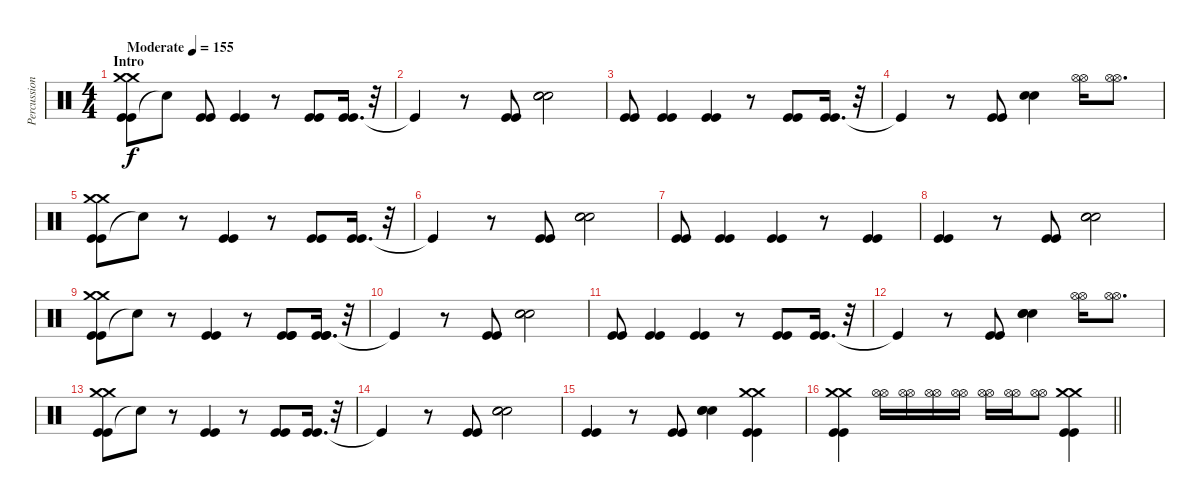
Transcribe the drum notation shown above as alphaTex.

\track ("Percussion" "Percussion") {instrument percussion}
\staff {score}
\articulation defaults
\ts (4 4)
\section ("" "Intro")
\tempo (155 "Moderate")
\clef neutral
\ks c
("Kick (hit)" "Kick (hit)" "Crash medium (hit)" "Crash medium (hit)").8{dy f} "Snare (hit)"{t}.8 ("Kick (hit)" "Kick (hit)").8 ("Kick (hit)" "Kick (hit)").4 r.8 ("Kick (hit)" "Kick (hit)").8 ("Kick (hit)" "Kick (hit)").16{d} r.32 |
"Kick (hit)"{t}.4 r.8 ("Kick (hit)" "Kick (hit)").8 ("Electric Snare (hit)" "Electric Snare (hit)" "Electric Snare (hit)").2 |
("Kick (hit)" "Kick (hit)").8 ("Kick (hit)" "Kick (hit)").4 ("Kick (hit)" "Kick (hit)").4 r.8 ("Kick (hit)" "Kick (hit)").8 ("Kick (hit)" "Kick (hit)").16{d} r.32 |
"Kick (hit)"{t}.4 r.8 ("Kick (hit)" "Kick (hit)").8 ("Electric Snare (hit)" "Electric Snare (hit)").4 ("Hi-Hat (open)" "Hi-Hat (open)").16 ("Hi-Hat (open)" "Hi-Hat (open)").8{d} |
("Kick (hit)" "Kick (hit)" "Crash medium (hit)" "Crash medium (hit)").8 "Snare (hit)"{t}.8 r.8 ("Kick (hit)" "Kick (hit)").4 r.8 ("Kick (hit)" "Kick (hit)").8 ("Kick (hit)" "Kick (hit)").16{d} r.32 |
"Kick (hit)"{t}.4 r.8 ("Kick (hit)" "Kick (hit)").8 ("Electric Snare (hit)" "Electric Snare (hit)" "Electric Snare (hit)").2 |
("Kick (hit)" "Kick (hit)").8 ("Kick (hit)" "Kick (hit)").4 ("Kick (hit)" "Kick (hit)").4 r.8 ("Kick (hit)" "Kick (hit)").4 |
("Kick (hit)" "Kick (hit)").4 r.8 ("Kick (hit)" "Kick (hit)").8 ("Electric Snare (hit)" "Electric Snare (hit)" "Electric Snare (hit)").2 |
("Kick (hit)" "Kick (hit)" "Crash medium (hit)" "Crash medium (hit)").8 "Snare (hit)"{t}.8 r.8 ("Kick (hit)" "Kick (hit)").4 r.8 ("Kick (hit)" "Kick (hit)" "Kick (hit)").8 ("Kick (hit)" "Kick (hit)" "Kick (hit)").16{d} r.32 |
"Kick (hit)"{t}.4 r.8 ("Kick (hit)" "Kick (hit)").8 ("Electric Snare (hit)" "Electric Snare (hit)" "Electric Snare (hit)").2 |
("Kick (hit)" "Kick (hit)").8 ("Kick (hit)" "Kick (hit)").4 ("Kick (hit)" "Kick (hit)").4 r.8 ("Kick (hit)" "Kick (hit)").8 ("Kick (hit)" "Kick (hit)").16{d} r.32 |
"Kick (hit)"{t}.4 r.8 ("Kick (hit)" "Kick (hit)").8 ("Electric Snare (hit)" "Electric Snare (hit)" "Electric Snare (hit)").4 ("Hi-Hat (open)" "Hi-Hat (open)").16 ("Hi-Hat (open)" "Hi-Hat (open)").8{d} |
("Kick (hit)" "Kick (hit)" "Crash medium (hit)" "Crash medium (hit)").8 "Snare (hit)"{t}.8 r.8 ("Kick (hit)" "Kick (hit)").4 r.8 ("Kick (hit)" "Kick (hit)").8 ("Kick (hit)" "Kick (hit)").16{d} r.32 |
"Kick (hit)"{t}.4 r.8 ("Kick (hit)" "Kick (hit)").8 ("Electric Snare (hit)" "Electric Snare (hit)" "Electric Snare (hit)").2 |
("Kick (hit)" "Kick (hit)").4 r.8 ("Kick (hit)" "Kick (hit)").8 ("Electric Snare (hit)" "Electric Snare (hit)" "Electric Snare (hit)").4 ("Kick (hit)" "Kick (hit)" "Crash medium (hit)" "Crash medium (hit)").4 |
\barLineRight lightlight
("Kick (hit)" "Kick (hit)" "Crash medium (hit)" "Crash medium (hit)").4 ("Hi-Hat (open)" "Hi-Hat (open)").16 ("Hi-Hat (open)" "Hi-Hat (open)").16 ("Hi-Hat (open)" "Hi-Hat (open)").16 ("Hi-Hat (open)" "Hi-Hat (open)").16 ("Hi-Hat (open)" "Hi-Hat (open)").16 ("Hi-Hat (open)" "Hi-Hat (open)").16 ("Hi-Hat (open)" "Hi-Hat (open)").8 ("Kick (hit)" "Kick (hit)" "Crash medium (hit)" "Crash medium (hit)").4
